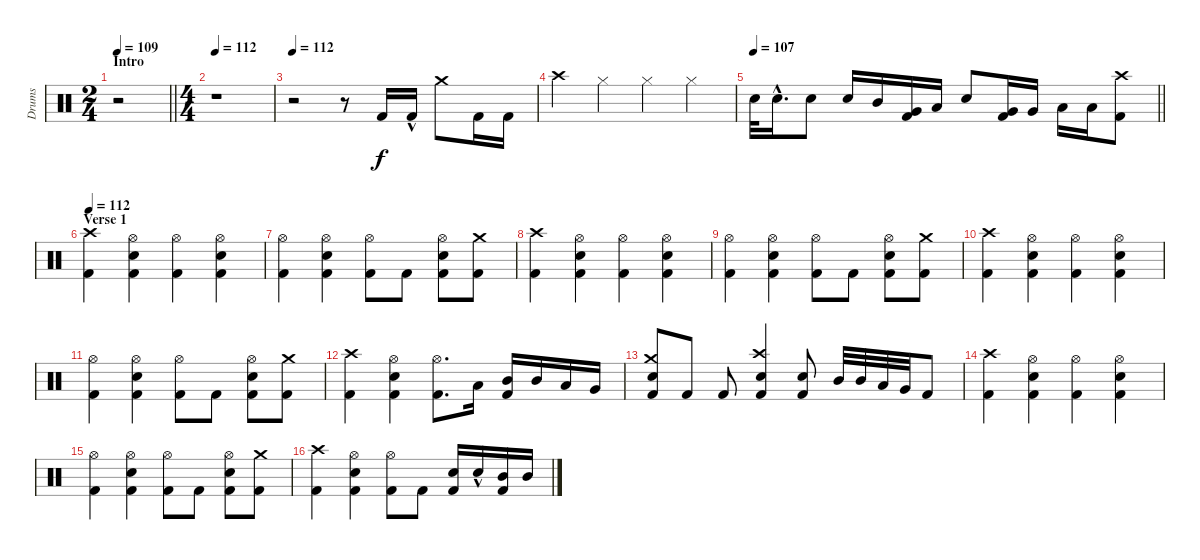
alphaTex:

\track ("Drums" "Drums") {instrument percussion}
\staff {score}
\articulation defaults
\ts (2 4)
\section ("" "Intro")
\tempo 109
\clef neutral
\barLineRight lightlight
\ks c
r.2{dy f} |
\ts (4 4)
\tempo 112
r.1 |
\tempo 112
r.2 r.8 "Kick (hit) 2".16 "Kick (hit) 2"{hac}.16 "Crash medium (hit)".8 "Kick (hit) 2".16 "Kick (hit) 2".16 |
"Crash high (hit)".4 "Hi-Hat (closed)".4 "Hi-Hat (closed)".4 "Hi-Hat (closed)".4 |
\tempo 107
\barLineRight lightlight "Snare (hit) 2".32 "Snare (hit) 2"{hac}.16{d} "Snare (hit) 2".8 "Snare (hit) 2".16 "Mid Tom (hit)".16
("Kick (hit) 2" "Very Low Tom (hit)").16 "Low Floor Tom (hit)".16 "Snare (hit) 2".8 ("Kick (hit) 2" "Very Low Tom (hit)").16 "Very Low Tom (hit)".16 "Low Floor Tom (hit)".16 "Low Floor Tom (hit)".16 ("Kick (hit) 2" "Crash high (hit)").8 |
\section ("" "Verse 1")
\tempo 112
("Kick (hit) 2" "Crash high (hit)").4 ("Snare (hit) 2" "Hi-Hat (open)" "Kick (hit) 2").4 ("Kick (hit) 2" "Hi-Hat (open)").4 ("Snare (hit) 2" "Kick (hit) 2" "Hi-Hat (open)").4 |
("Hi-Hat (open)" "Kick (hit) 2").4 ("Snare (hit) 2" "Hi-Hat (open)" "Kick (hit) 2").4 ("Hi-Hat (open)" "Kick (hit) 2").8 "Kick (hit) 2".8 ("Snare (hit) 2" "Hi-Hat (open)" "Kick (hit) 2").8 ("Kick (hit) 2" "Crash medium (hit)").8 |
("Kick (hit) 2" "Crash high (hit)").4 ("Hi-Hat (open)" "Kick (hit) 2" "Snare (hit) 2").4 ("Hi-Hat (open)" "Kick (hit) 2").4 ("Hi-Hat (open)" "Kick (hit) 2" "Snare (hit) 2").4 |
("Hi-Hat (open)" "Kick (hit) 2").4 ("Hi-Hat (open)" "Kick (hit) 2" "Snare (hit) 2").4 ("Hi-Hat (open)" "Kick (hit) 2").8 "Kick (hit) 2".8 ("Kick (hit) 2" "Hi-Hat (open)" "Snare (hit) 2").8 ("Kick (hit) 2" "Crash medium (hit)").8 |
("Kick (hit) 2" "Crash high (hit)").4 ("Hi-Hat (open)" "Kick (hit) 2" "Snare (hit) 2").4 ("Hi-Hat (open)" "Kick (hit) 2").4 ("Snare (hit) 2" "Kick (hit) 2" "Hi-Hat (open)").4 |
("Kick (hit) 2" "Hi-Hat (open)").4 ("Snare (hit) 2" "Kick (hit) 2" "Hi-Hat (open)").4 ("Kick (hit) 2" "Hi-Hat (open)").8 "Kick (hit) 2".8 ("Kick (hit) 2" "Hi-Hat (open)" "Snare (hit) 2").8 ("Crash medium (hit)" "Kick (hit) 2").8 |
("Kick (hit) 2" "Crash high (hit)").4 ("Snare (hit) 2" "Hi-Hat (open)" "Kick (hit) 2").4 ("Hi-Hat (open)" "Kick (hit) 2").8{d} "Low Tom (hit)".16 ("Kick (hit) 2" "Mid Tom (hit)").16 "Mid Tom (hit)".16 "Low Tom (hit)".16 "Very Low Tom (hit)".16 |
("Snare (hit) 2" "Crash medium (hit)" "Kick (hit) 2").8 "Kick (hit) 2".8 "Kick (hit) 2".8 ("Snare (hit) 2" "Kick (hit) 2" "Crash high (hit)").4 ("Snare (hit) 2" "Kick (hit) 2").8 "Mid Tom (hit)".32 "Mid Tom (hit)".32 "Low Tom (hit)".32 "Very Low Tom (hit)".32 "Kick (hit) 2".8 |
("Kick (hit) 2" "Crash high (hit)").4 ("Snare (hit) 2" "Hi-Hat (open)" "Kick (hit) 2").4 ("Hi-Hat (open)" "Kick (hit) 2").4 ("Snare (hit) 2" "Hi-Hat (open)" "Kick (hit) 2").4 |
("Hi-Hat (open)" "Kick (hit) 2").4 ("Hi-Hat (open)" "Snare (hit) 2" "Kick (hit) 2").4 ("Hi-Hat (open)" "Kick (hit) 2").8 "Kick (hit) 2".8 ("Snare (hit) 2" "Hi-Hat (open)" "Kick (hit) 2").8 ("Kick (hit) 2" "Crash medium (hit)").8 |
("Crash high (hit)" "Kick (hit) 2").4 ("Hi-Hat (open)" "Kick (hit) 2" "Snare (hit) 2").4 ("Hi-Hat (open)" "Kick (hit) 2").8 "Kick (hit) 2".8 ("Kick (hit) 2" "Snare (hit) 2").16 "Snare (hit) 2"{hac}.16 ("Kick (hit) 2" "Mid Tom (hit)").16 "Mid Tom (hit)".16
